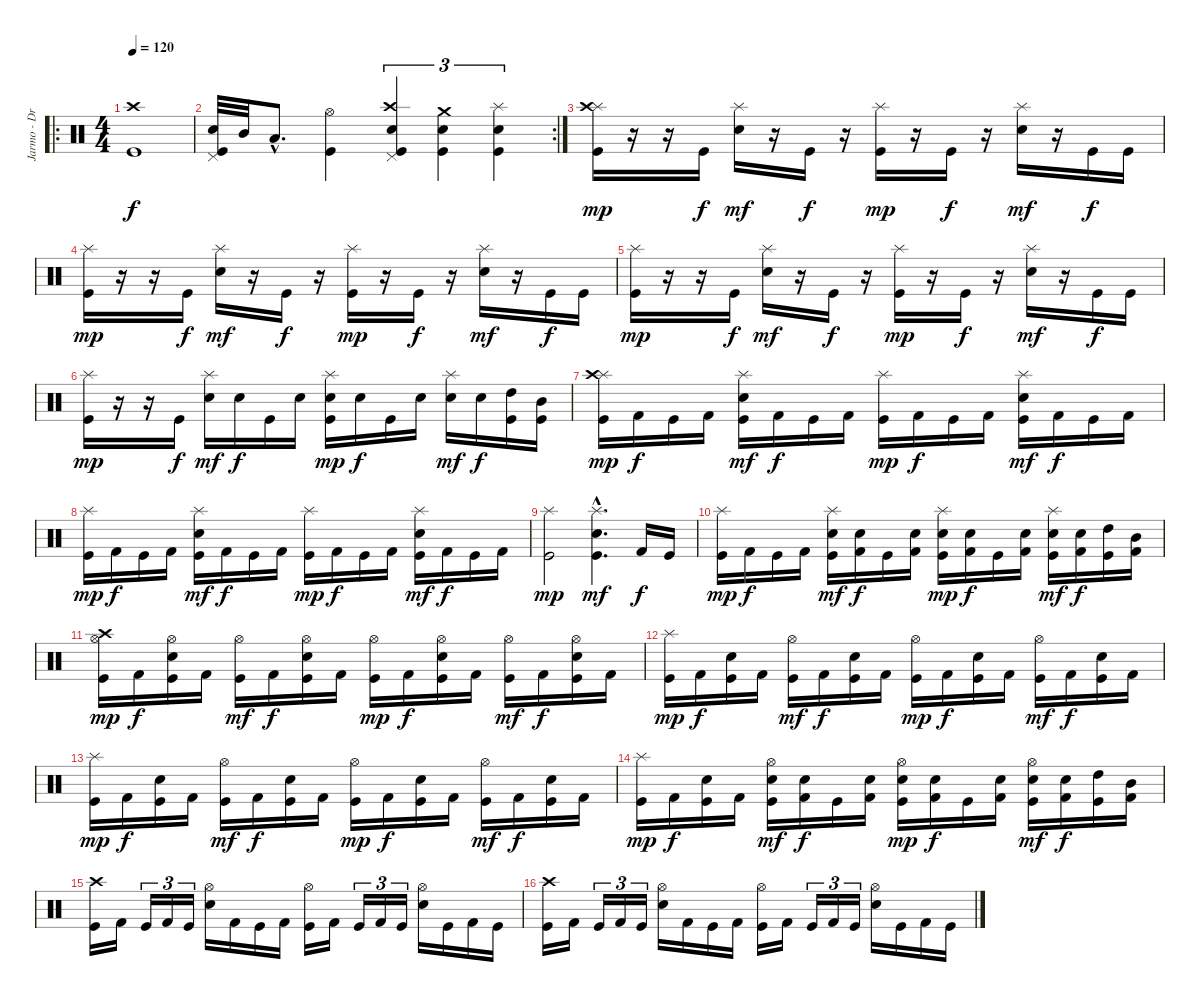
\track ("Jarmo - Drums" "Jarmo - Dr") {instrument percussion}
\staff {score}
\articulation defaults
\ro
\ts (4 4)
\tempo 120
\clef neutral
\ks c
("Kick (hit)" "Crash high (hit)").1{dy f} |
\rc 2
("Kick (hit)" "Electric Snare (hit)" "Pedal Hi-Hat (hit)").32 "Mid Tom (hit)".32 "Low Tom (hit)"{hac}.8{d} ("Kick (hit)" "Hi-Hat (open)").4 ("Kick (hit)" "Electric Snare (hit)" "Pedal Hi-Hat (hit)" "Crash high (hit)").4{tu (3 2)} ("Kick (hit)" "Electric Snare (hit)" "Crash medium (hit)").4{tu (3 2)} ("Kick (hit)" "Electric Snare (hit)" "Splash (hit)").4{tu (3 2)} |
("Kick (hit)" "Splash (hit)" "Crash high (hit)").16{dy mp} r.16 r.16 "Kick (hit)".16{dy f} ("Electric Snare (hit)" "Splash (hit)").16{dy mf} r.16 "Kick (hit)".16{dy f} r.16 ("Kick (hit)" "Splash (hit)").16{dy mp} r.16 "Kick (hit)".16{dy f} r.16 ("Electric Snare (hit)" "Splash (hit)").16{dy mf} r.16 "Kick (hit)".16{dy f} "Kick (hit)".16 |
("Kick (hit)" "Splash (hit)").16{dy mp} r.16 r.16 "Kick (hit)".16{dy f} ("Electric Snare (hit)" "Splash (hit)").16{dy mf} r.16 "Kick (hit)".16{dy f} r.16 ("Kick (hit)" "Splash (hit)").16{dy mp} r.16 "Kick (hit)".16{dy f} r.16 ("Electric Snare (hit)" "Splash (hit)").16{dy mf} r.16 "Kick (hit)".16{dy f} "Kick (hit)".16 |
("Kick (hit)" "Splash (hit)").16{dy mp} r.16 r.16 "Kick (hit)".16{dy f} ("Electric Snare (hit)" "Splash (hit)").16{dy mf} r.16 "Kick (hit)".16{dy f} r.16 ("Kick (hit)" "Splash (hit)").16{dy mp} r.16 "Kick (hit)".16{dy f} r.16 ("Electric Snare (hit)" "Splash (hit)").16{dy mf} r.16 "Kick (hit)".16{dy f} "Kick (hit)".16 |
("Kick (hit)" "Splash (hit)").16{dy mp} r.16 r.16 "Kick (hit)".16{dy f} ("Electric Snare (hit)" "Splash (hit)").16{dy mf} "Electric Snare (hit)".16{dy f} "Kick (hit)".16 "Electric Snare (hit)".16 ("Kick (hit)" "Electric Snare (hit)" "Splash (hit)").16{dy mp} "Electric Snare (hit)".16{dy f} "Kick (hit)".16 "Electric Snare (hit)".16 ("Electric Snare (hit)" "Splash (hit)").16{dy mf} "Electric Snare (hit)".16{dy f} ("Kick (hit)" "High Tom (hit)").16 ("Kick (hit)" "Mid Tom (hit)").16 |
("Kick (hit)" "Splash (hit)" "Crash high (hit)").16{dy mp} "Kick (hit) 2".16{dy f} "Kick (hit)".16 "Kick (hit) 2".16 ("Kick (hit)" "Electric Snare (hit)" "Splash (hit)").16{dy mf} "Kick (hit) 2".16{dy f} "Kick (hit)".16 "Kick (hit) 2".16 ("Kick (hit)" "Splash (hit)").16{dy mp} "Kick (hit) 2".16{dy f} "Kick (hit)".16 "Kick (hit) 2".16 ("Kick (hit)" "Electric Snare (hit)" "Splash (hit)").16{dy mf} "Kick (hit) 2".16{dy f} "Kick (hit)".16 "Kick (hit) 2".16 |
("Kick (hit)" "Splash (hit)").16{dy mp} "Kick (hit) 2".16{dy f} "Kick (hit)".16 "Kick (hit) 2".16 ("Kick (hit)" "Electric Snare (hit)" "Splash (hit)").16{dy mf} "Kick (hit) 2".16{dy f} "Kick (hit)".16 "Kick (hit) 2".16 ("Kick (hit)" "Splash (hit)").16{dy mp} "Kick (hit) 2".16{dy f} "Kick (hit)".16 "Kick (hit) 2".16 ("Kick (hit)" "Electric Snare (hit)" "Splash (hit)").16{dy mf} "Kick (hit) 2".16{dy f} "Kick (hit)".16 "Kick (hit) 2".16 |
("Kick (hit)" "Splash (hit)").2{dy mp} ("Kick (hit)"{hac} "Electric Snare (hit)"{hac} "Splash (hit)"{hac}).4{d dy mf} "Kick (hit) 2".16{dy f} "Kick (hit)".16 |
("Kick (hit)" "Splash (hit)").16{dy mp} "Kick (hit) 2".16{dy f} "Kick (hit)".16 "Kick (hit) 2".16 ("Kick (hit)" "Electric Snare (hit)" "Splash (hit)").16{dy mf} ("Kick (hit) 2" "Electric Snare (hit)").16{dy f} "Kick (hit)".16 ("Kick (hit) 2" "Electric Snare (hit)").16 ("Kick (hit)" "Electric Snare (hit)" "Splash (hit)").16{dy mp} ("Kick (hit) 2" "Electric Snare (hit)").16{dy f} "Kick (hit)".16 ("Kick (hit) 2" "Electric Snare (hit)").16 ("Kick (hit)" "Electric Snare (hit)" "Splash (hit)").16{dy mf} ("Kick (hit) 2" "Electric Snare (hit)").16{dy f} ("Kick (hit)" "High Tom (hit)").16 ("Kick (hit) 2" "Mid Tom (hit)").16 |
("Kick (hit)" "Hi-Hat (open)" "Crash high (hit)").16{dy mp} "Kick (hit) 2".16{dy f} ("Kick (hit)" "Electric Snare (hit)" "Hi-Hat (open)").16 "Kick (hit) 2".16 ("Kick (hit)" "Hi-Hat (open)").16{dy mf} "Kick (hit) 2".16{dy f} ("Kick (hit)" "Electric Snare (hit)" "Hi-Hat (open)").16 "Kick (hit) 2".16 ("Kick (hit)" "Hi-Hat (open)").16{dy mp} "Kick (hit) 2".16{dy f} ("Kick (hit)" "Electric Snare (hit)" "Hi-Hat (open)").16 "Kick (hit) 2".16 ("Kick (hit)" "Hi-Hat (open)").16{dy mf} "Kick (hit) 2".16{dy f} ("Kick (hit)" "Electric Snare (hit)" "Hi-Hat (open)").16 "Kick (hit) 2".16 |
("Kick (hit)" "Splash (hit)").16{dy mp} "Kick (hit) 2".16{dy f} ("Kick (hit)" "Electric Snare (hit)").16 "Kick (hit) 2".16 ("Kick (hit)" "Hi-Hat (open)").16{dy mf} "Kick (hit) 2".16{dy f} ("Kick (hit)" "Electric Snare (hit)").16 "Kick (hit) 2".16 ("Kick (hit)" "Hi-Hat (open)").16{dy mp} "Kick (hit) 2".16{dy f} ("Kick (hit)" "Electric Snare (hit)").16 "Kick (hit) 2".16 ("Kick (hit)" "Hi-Hat (open)").16{dy mf} "Kick (hit) 2".16{dy f} ("Kick (hit)" "Electric Snare (hit)").16 "Kick (hit) 2".16 |
("Kick (hit)" "Splash (hit)").16{dy mp} "Kick (hit) 2".16{dy f} ("Kick (hit)" "Electric Snare (hit)").16 "Kick (hit) 2".16 ("Kick (hit)" "Hi-Hat (open)").16{dy mf} "Kick (hit) 2".16{dy f} ("Kick (hit)" "Electric Snare (hit)").16 "Kick (hit) 2".16 ("Kick (hit)" "Hi-Hat (open)").16{dy mp} "Kick (hit) 2".16{dy f} ("Kick (hit)" "Electric Snare (hit)").16 "Kick (hit) 2".16 ("Kick (hit)" "Hi-Hat (open)").16{dy mf} "Kick (hit) 2".16{dy f} ("Kick (hit)" "Electric Snare (hit)").16 "Kick (hit) 2".16 |
("Kick (hit)" "Splash (hit)").16{dy mp} "Kick (hit) 2".16{dy f} ("Kick (hit)" "Electric Snare (hit)").16 "Kick (hit) 2".16 ("Kick (hit)" "Electric Snare (hit)" "Hi-Hat (open)").16{dy mf} ("Kick (hit) 2" "Electric Snare (hit)").16{dy f} "Kick (hit)".16 ("Kick (hit) 2" "Electric Snare (hit)").16 ("Kick (hit)" "Electric Snare (hit)" "Hi-Hat (open)").16{dy mp} ("Kick (hit) 2" "Electric Snare (hit)").16{dy f} "Kick (hit)".16 ("Kick (hit) 2" "Electric Snare (hit)").16 ("Kick (hit)" "Electric Snare (hit)" "Hi-Hat (open)").16{dy mf} ("Kick (hit) 2" "Electric Snare (hit)").16{dy f} ("Kick (hit)" "High Tom (hit)").16 ("Kick (hit) 2" "Mid Tom (hit)").16 |
("Kick (hit)" "Crash high (hit)").16 "Kick (hit) 2".16 "Kick (hit)".16{tu (3 2)} "Kick (hit) 2".16{tu (3 2)} "Kick (hit)".16{tu (3 2)} ("Electric Snare (hit)" "Hi-Hat (open)").16 "Kick (hit) 2".16 "Kick (hit)".16 "Kick (hit) 2".16 ("Kick (hit)" "Hi-Hat (open)").16 "Kick (hit) 2".16 "Kick (hit)".16{tu (3 2)} "Kick (hit) 2".16{tu (3 2)} "Kick (hit)".16{tu (3 2)} ("Electric Snare (hit)" "Hi-Hat (open)").16 "Kick (hit)".16 "Kick (hit) 2".16 "Kick (hit)".16 |
("Kick (hit)" "Crash high (hit)").16 "Kick (hit) 2".16 "Kick (hit)".16{tu (3 2)} "Kick (hit) 2".16{tu (3 2)} "Kick (hit)".16{tu (3 2)} ("Electric Snare (hit)" "Hi-Hat (open)").16 "Kick (hit) 2".16 "Kick (hit)".16 "Kick (hit) 2".16 ("Kick (hit)" "Hi-Hat (open)").16 "Kick (hit) 2".16 "Kick (hit)".16{tu (3 2)} "Kick (hit) 2".16{tu (3 2)} "Kick (hit)".16{tu (3 2)} ("Electric Snare (hit)" "Hi-Hat (open)").16 "Kick (hit)".16 "Kick (hit) 2".16 "Kick (hit)".16
